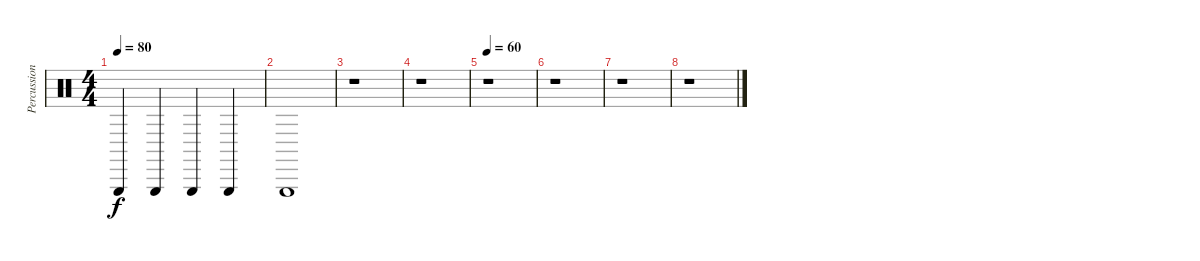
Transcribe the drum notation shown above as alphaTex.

\track ("Percussion" "Percussion") {instrument percussion}
\staff {score}
\articulation defaults
\ts (4 4)
\tempo 80
\clef neutral
\ks c "Triangle (hit)".4{dy f} "Triangle (hit)".4{beam merge} "Triangle (hit)".4 "Triangle (hit)".4
|
"Triangle (hit)".1 |
r.1 |
r.1 |
\tempo 60
r.1 |
r.1 |
r.1 |
r.1
